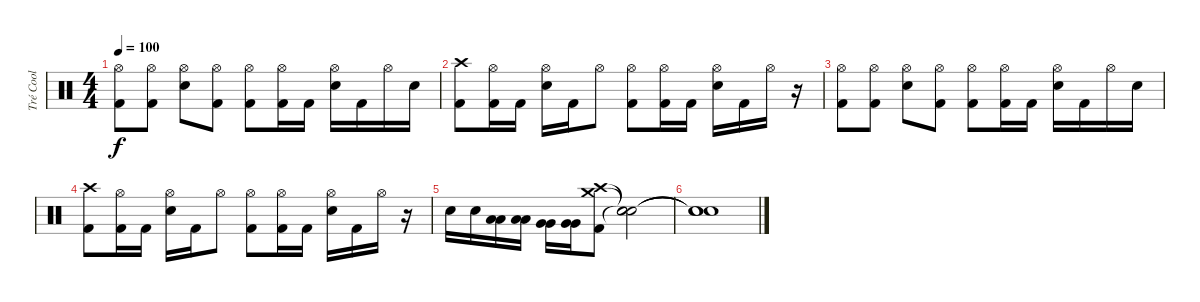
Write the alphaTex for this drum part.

\track ("Tré Cool" "Tré Cool") {instrument percussion}
\staff {score}
\articulation defaults
\ts (4 4)
\tempo 100
\clef neutral
\ks c
("Hi-Hat (open)" "Kick (hit) 2").8{dy f} ("Hi-Hat (open)" "Kick (hit) 2").8 ("Hi-Hat (open)" "Electric Snare (hit)").8 ("Hi-Hat (open)" "Kick (hit) 2").8 ("Hi-Hat (open)" "Kick (hit) 2").8 ("Hi-Hat (open)" "Kick (hit) 2").16 "Kick (hit) 2".16 ("Hi-Hat (open)" "Electric Snare (hit)").16 "Kick (hit) 2".16 "Hi-Hat (open)".16 "Electric Snare (hit)".16 |
("Crash high (hit)" "Kick (hit) 2").8 ("Hi-Hat (open)" "Kick (hit) 2").16 "Kick (hit) 2".16 ("Hi-Hat (open)" "Electric Snare (hit)").16 "Kick (hit) 2".16 "Hi-Hat (open)".8 ("Hi-Hat (open)" "Kick (hit) 2").8 ("Hi-Hat (open)" "Kick (hit) 2").16 "Kick (hit) 2".16 ("Hi-Hat (open)" "Electric Snare (hit)").16 "Kick (hit) 2".16 "Hi-Hat (open)".16 r.16 |
("Hi-Hat (open)" "Kick (hit) 2").8 ("Hi-Hat (open)" "Kick (hit) 2").8 ("Hi-Hat (open)" "Electric Snare (hit)").8 ("Hi-Hat (open)" "Kick (hit) 2").8 ("Hi-Hat (open)" "Kick (hit) 2").8 ("Hi-Hat (open)" "Kick (hit) 2").16 "Kick (hit) 2".16 ("Hi-Hat (open)" "Electric Snare (hit)").16 "Kick (hit) 2".16 "Hi-Hat (open)".16 "Electric Snare (hit)".16 |
("Crash high (hit)" "Kick (hit) 2").8 ("Hi-Hat (open)" "Kick (hit) 2").16 "Kick (hit) 2".16 ("Hi-Hat (open)" "Electric Snare (hit)").16 "Kick (hit) 2".16 "Hi-Hat (open)".8 ("Hi-Hat (open)" "Kick (hit) 2").8 ("Hi-Hat (open)" "Kick (hit) 2").16 "Kick (hit) 2".16 ("Hi-Hat (open)" "Electric Snare (hit)").16 "Kick (hit) 2".16 "Hi-Hat (open)".16 r.16 |
"Electric Snare (hit)".16 "Electric Snare (hit)".16 ("Low Tom (hit)" "Low Tom (hit)").16 ("Low Tom (hit)" "Low Tom (hit)").16 ("Very Low Tom (hit)" "Very Low Tom (hit)").16 ("Very Low Tom (hit)" "Very Low Tom (hit)").16 ("Crash high (hit)" "Crash medium (hit)" "Kick (hit) 2").8 ("Snare (hit)"{t} "Snare (hit)"{t} "Snare (hit)"{t}).2 |
("Snare (hit)"{t} "Snare (hit)"{t} "Snare (hit)"{t}).1
